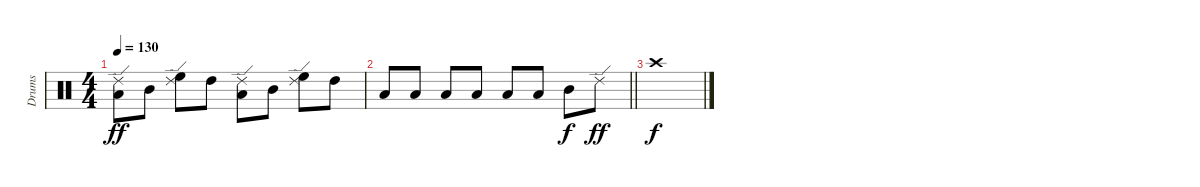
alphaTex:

\track ("Drums" "Drums") {instrument percussion}
\staff {score}
\articulation defaults
\ts (4 4)
\tempo 130
\clef neutral
\ks c
("Low Tom (hit)" "Ride (edge) 2").8{dy ff} "Mid Tom (hit)".8 ("High Floor Tom (hit)" "Ride (edge) 2").8 "High Tom (hit)".8 ("Low Tom (hit)" "Ride (edge) 2").8 "Mid Tom (hit)".8 ("High Floor Tom (hit)" "Ride (edge) 2").8 "High Tom (hit)".8 |
\barLineRight lightlight "Low Tom (hit)".8 "Low Tom (hit)".8 "Low Tom (hit)".8 "Low Tom (hit)".8 "Low Tom (hit)".8 "Low Tom (hit)".8 "Mid Tom (hit)".8{dy f} "Ride (edge) 2".8{dy ff}
|
"Crash high (hit)".1{dy f}
